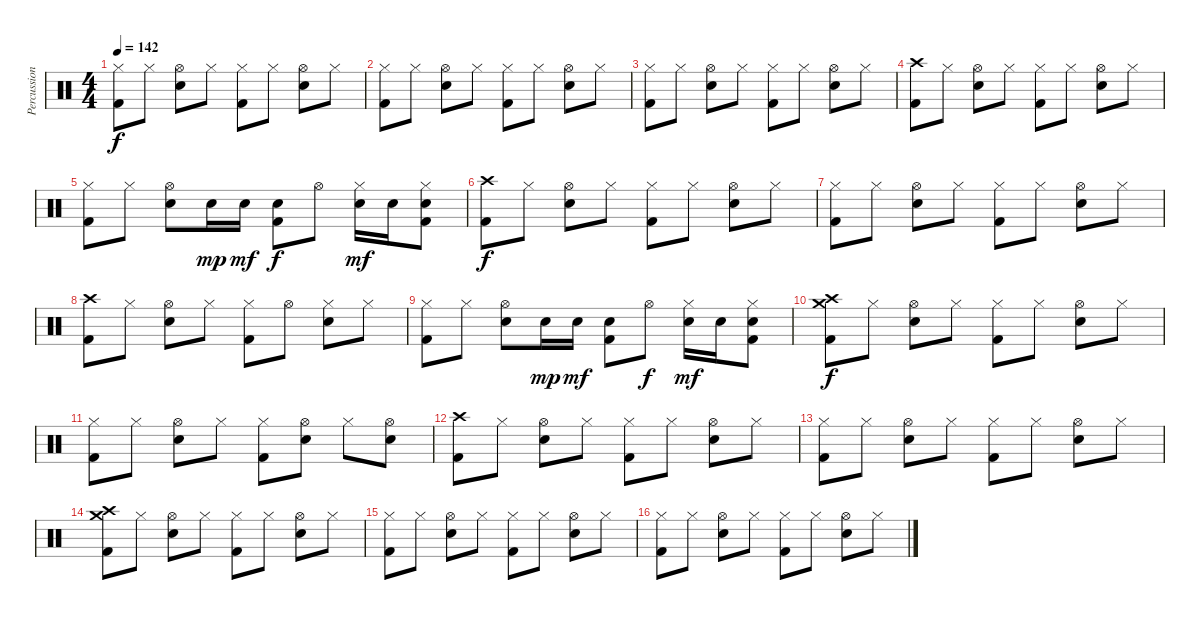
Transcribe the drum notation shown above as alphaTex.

\track ("Percussion" "Percussion") {instrument percussion}
\staff {score}
\articulation defaults
\ts (4 4)
\tempo 142
\clef neutral
\ks c
("Kick (hit) 2" "Hi-Hat (closed)").8{dy f} "Hi-Hat (closed)".8 ("Snare (hit) 2" "Hi-Hat (open)").8 "Hi-Hat (closed)".8 ("Kick (hit) 2" "Hi-Hat (closed)").8 "Hi-Hat (closed)".8 ("Snare (hit) 2" "Hi-Hat (open)").8 "Hi-Hat (closed)".8 |
("Kick (hit) 2" "Hi-Hat (closed)").8 "Hi-Hat (closed)".8 ("Snare (hit) 2" "Hi-Hat (open)").8 "Hi-Hat (closed)".8 ("Kick (hit) 2" "Hi-Hat (closed)").8 "Hi-Hat (closed)".8 ("Snare (hit) 2" "Hi-Hat (open)").8 "Hi-Hat (closed)".8 |
("Kick (hit) 2" "Hi-Hat (closed)").8 "Hi-Hat (closed)".8 ("Snare (hit) 2" "Hi-Hat (open)").8 "Hi-Hat (closed)".8 ("Kick (hit) 2" "Hi-Hat (closed)").8 "Hi-Hat (closed)".8 ("Snare (hit) 2" "Hi-Hat (open)").8 "Hi-Hat (closed)".8 |
("Kick (hit) 2" "Crash high (hit)").8 "Hi-Hat (closed)".8 ("Snare (hit) 2" "Hi-Hat (open)").8 "Hi-Hat (closed)".8 ("Kick (hit) 2" "Hi-Hat (closed)").8 "Hi-Hat (closed)".8 ("Snare (hit) 2" "Hi-Hat (open)").8 "Hi-Hat (closed)".8 |
("Kick (hit) 2" "Hi-Hat (closed)").8 "Hi-Hat (closed)".8 ("Snare (hit) 2" "Hi-Hat (open)").8 "Snare (hit) 2".16{dy mp} "Snare (hit) 2".16{dy mf} ("Kick (hit) 2" "Snare (hit) 2").8{dy f} "Hi-Hat (open)".8 ("Snare (hit) 2" "Hi-Hat (closed)").16{dy mf} "Snare (hit) 2".16 ("Kick (hit) 2" "Snare (hit) 2" "Hi-Hat (closed)").8 |
("Kick (hit) 2" "Crash high (hit)").8{dy f} "Hi-Hat (closed)".8 ("Snare (hit) 2" "Hi-Hat (open)").8 "Hi-Hat (closed)".8 ("Kick (hit) 2" "Hi-Hat (closed)").8 "Hi-Hat (closed)".8 ("Snare (hit) 2" "Hi-Hat (open)").8 "Hi-Hat (closed)".8 |
("Kick (hit) 2" "Hi-Hat (closed)").8 "Hi-Hat (closed)".8 ("Snare (hit) 2" "Hi-Hat (open)").8 "Hi-Hat (closed)".8 ("Kick (hit) 2" "Hi-Hat (closed)").8 "Hi-Hat (closed)".8 ("Snare (hit) 2" "Hi-Hat (open)").8 "Hi-Hat (closed)".8 |
("Kick (hit) 2" "Crash high (hit)").8 "Hi-Hat (closed)".8 ("Snare (hit) 2" "Hi-Hat (open)").8 "Hi-Hat (closed)".8 ("Kick (hit) 2" "Hi-Hat (closed)").8 "Hi-Hat (open)".8 ("Snare (hit) 2" "Hi-Hat (closed)").8 "Hi-Hat (closed)".8 |
("Kick (hit) 2" "Hi-Hat (closed)").8 "Hi-Hat (closed)".8 ("Snare (hit) 2" "Hi-Hat (open)").8 "Snare (hit) 2".16{dy mp} "Snare (hit) 2".16{dy mf} ("Kick (hit) 2" "Snare (hit) 2").8 "Hi-Hat (open)".8{dy f} ("Snare (hit) 2" "Hi-Hat (closed)").16{dy mf} "Snare (hit) 2".16 ("Kick (hit) 2" "Snare (hit) 2" "Hi-Hat (closed)").8 |
("Kick (hit) 2" "Crash high (hit)" "Crash medium (hit)").8{dy f} "Hi-Hat (closed)".8 ("Snare (hit) 2" "Hi-Hat (open)").8 "Hi-Hat (closed)".8 ("Kick (hit) 2" "Hi-Hat (closed)").8 "Hi-Hat (closed)".8 ("Snare (hit) 2" "Hi-Hat (open)").8 "Hi-Hat (closed)".8 |
("Kick (hit) 2" "Hi-Hat (closed)").8 "Hi-Hat (closed)".8 ("Snare (hit) 2" "Hi-Hat (open)").8 "Hi-Hat (closed)".8 ("Kick (hit) 2" "Hi-Hat (closed)").8 ("Snare (hit) 2" "Hi-Hat (open)").8 "Hi-Hat (closed)".8 ("Snare (hit) 2" "Hi-Hat (open)").8 |
("Kick (hit) 2" "Crash high (hit)").8 "Hi-Hat (closed)".8 ("Snare (hit) 2" "Hi-Hat (open)").8 "Hi-Hat (closed)".8 ("Kick (hit) 2" "Hi-Hat (closed)").8 "Hi-Hat (closed)".8 ("Snare (hit) 2" "Hi-Hat (open)").8 "Hi-Hat (closed)".8 |
("Kick (hit) 2" "Hi-Hat (closed)").8 "Hi-Hat (closed)".8 ("Snare (hit) 2" "Hi-Hat (open)").8 "Hi-Hat (closed)".8 ("Kick (hit) 2" "Hi-Hat (closed)").8 "Hi-Hat (closed)".8 ("Snare (hit) 2" "Hi-Hat (open)").8 "Hi-Hat (closed)".8 |
("Kick (hit) 2" "Crash high (hit)" "Crash medium (hit)").8 "Hi-Hat (closed)".8 ("Snare (hit) 2" "Hi-Hat (open)").8 "Hi-Hat (closed)".8 ("Kick (hit) 2" "Hi-Hat (closed)").8 "Hi-Hat (closed)".8 ("Snare (hit) 2" "Hi-Hat (open)").8 "Hi-Hat (closed)".8 |
("Kick (hit) 2" "Hi-Hat (closed)").8 "Hi-Hat (closed)".8 ("Snare (hit) 2" "Hi-Hat (open)").8 "Hi-Hat (closed)".8 ("Kick (hit) 2" "Hi-Hat (closed)").8 "Hi-Hat (closed)".8 ("Snare (hit) 2" "Hi-Hat (open)").8 "Hi-Hat (closed)".8 |
("Kick (hit) 2" "Hi-Hat (closed)").8 "Hi-Hat (closed)".8 ("Snare (hit) 2" "Hi-Hat (open)").8 "Hi-Hat (closed)".8 ("Kick (hit) 2" "Hi-Hat (closed)").8 "Hi-Hat (closed)".8 ("Snare (hit) 2" "Hi-Hat (open)").8 "Hi-Hat (closed)".8
